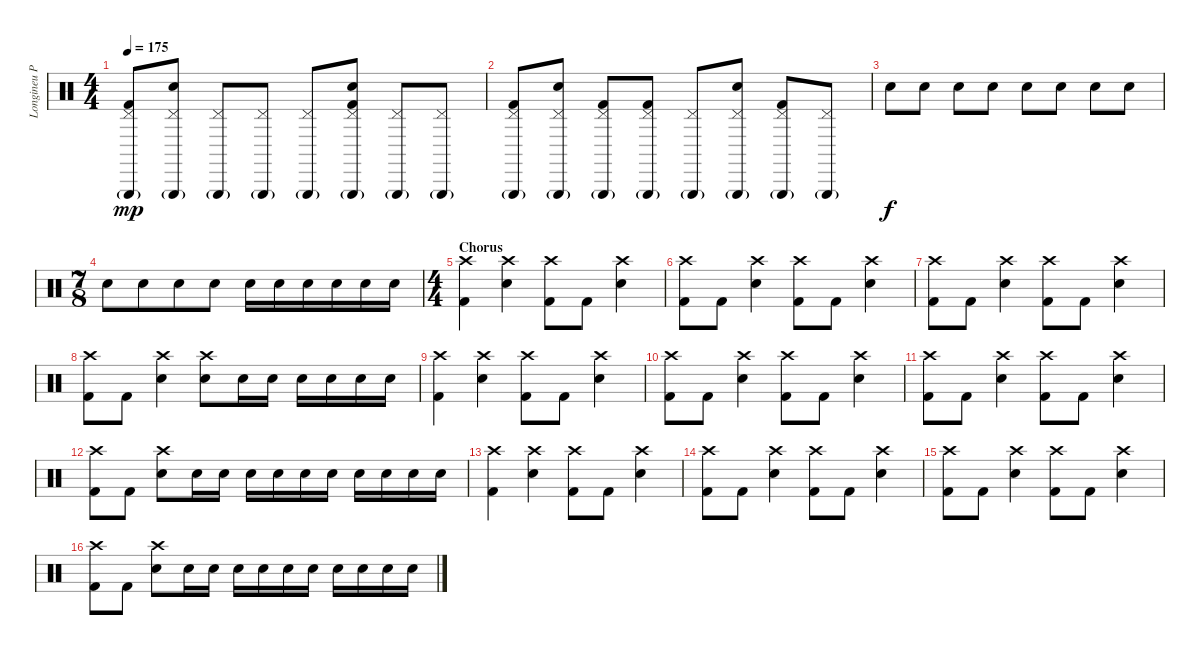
\track ("Longineu Parsons III Drums" "Longineu P") {instrument percussion}
\staff {score}
\articulation defaults
\ts (4 4)
\tempo 175
\clef neutral
\ks c
("Triangle (hit)"{g} "Pedal Hi-Hat (hit)" "Kick (hit) 2").8{dy mp} ("Triangle (hit)"{g} "Pedal Hi-Hat (hit)" "Electric Snare (hit)").8 ("Triangle (hit)"{g} "Pedal Hi-Hat (hit)").8 ("Triangle (hit)"{g} "Pedal Hi-Hat (hit)").8 ("Triangle (hit)"{g} "Pedal Hi-Hat (hit)").8 ("Triangle (hit)"{g} "Pedal Hi-Hat (hit)" "Electric Snare (hit)" "Kick (hit) 2").8 ("Triangle (hit)"{g} "Pedal Hi-Hat (hit)").8 ("Triangle (hit)"{g} "Pedal Hi-Hat (hit)").8 |
("Triangle (hit)"{g} "Pedal Hi-Hat (hit)" "Kick (hit) 2").8 ("Triangle (hit)"{g} "Pedal Hi-Hat (hit)" "Electric Snare (hit)").8 ("Triangle (hit)"{g} "Pedal Hi-Hat (hit)" "Kick (hit) 2").8 ("Triangle (hit)"{g} "Pedal Hi-Hat (hit)" "Kick (hit) 2").8 ("Triangle (hit)"{g} "Pedal Hi-Hat (hit)").8 ("Triangle (hit)"{g} "Pedal Hi-Hat (hit)" "Electric Snare (hit)").8 ("Triangle (hit)"{g} "Pedal Hi-Hat (hit)" "Kick (hit) 2").8 ("Triangle (hit)"{g} "Pedal Hi-Hat (hit)").8 |
"Snare (hit) 2".8{dy f} "Snare (hit) 2".8 "Snare (hit) 2".8 "Snare (hit) 2".8 "Snare (hit) 2".8 "Snare (hit) 2".8 "Snare (hit) 2".8 "Snare (hit) 2".8 |
\ts (7 8)
"Snare (hit) 2".8 "Snare (hit) 2".8 "Snare (hit) 2".8 "Snare (hit) 2".8 "Snare (hit) 2".16 "Snare (hit) 2".16 "Snare (hit) 2".16 "Snare (hit) 2".16 "Snare (hit) 2".16 "Snare (hit) 2".16 |
\ts (4 4)
\section ("" "Chorus")
("Kick (hit) 2" "Crash high (hit)").4 ("Snare (hit) 2" "Crash high (hit)").4 ("Kick (hit) 2" "Crash high (hit)").8 "Kick (hit) 2".8 ("Snare (hit) 2" "Crash high (hit)").4 |
("Kick (hit) 2" "Crash high (hit)").8 "Kick (hit) 2".8 ("Snare (hit) 2" "Crash high (hit)").4 ("Kick (hit) 2" "Crash high (hit)").8 "Kick (hit) 2".8 ("Snare (hit) 2" "Crash high (hit)").4 |
("Kick (hit) 2" "Crash high (hit)").8 "Kick (hit) 2".8 ("Snare (hit) 2" "Crash high (hit)").4 ("Kick (hit) 2" "Crash high (hit)").8 "Kick (hit) 2".8 ("Snare (hit) 2" "Crash high (hit)").4 |
("Kick (hit) 2" "Crash high (hit)").8 "Kick (hit) 2".8 ("Snare (hit) 2" "Crash high (hit)").4 ("Crash high (hit)" "Snare (hit) 2").8 "Snare (hit) 2".16 "Snare (hit) 2".16 "Snare (hit) 2".16 "Snare (hit) 2".16 "Snare (hit) 2".16 "Snare (hit) 2".16 |
("Kick (hit) 2" "Crash high (hit)").4 ("Snare (hit) 2" "Crash high (hit)").4 ("Kick (hit) 2" "Crash high (hit)").8 "Kick (hit) 2".8 ("Snare (hit) 2" "Crash high (hit)").4 |
("Kick (hit) 2" "Crash high (hit)").8 "Kick (hit) 2".8 ("Snare (hit) 2" "Crash high (hit)").4 ("Kick (hit) 2" "Crash high (hit)").8 "Kick (hit) 2".8 ("Snare (hit) 2" "Crash high (hit)").4 |
("Kick (hit) 2" "Crash high (hit)").8 "Kick (hit) 2".8 ("Snare (hit) 2" "Crash high (hit)").4 ("Kick (hit) 2" "Crash high (hit)").8 "Kick (hit) 2".8 ("Snare (hit) 2" "Crash high (hit)").4 |
("Kick (hit) 2" "Crash high (hit)").8 "Kick (hit) 2".8 ("Snare (hit) 2" "Crash high (hit)").8 "Snare (hit) 2".16 "Snare (hit) 2".16 "Snare (hit) 2".16 "Snare (hit) 2".16 "Snare (hit) 2".16 "Snare (hit) 2".16 "Snare (hit) 2".16 "Snare (hit) 2".16 "Snare (hit) 2".16 "Snare (hit) 2".16 |
("Kick (hit) 2" "Crash high (hit)").4 ("Snare (hit) 2" "Crash high (hit)").4 ("Kick (hit) 2" "Crash high (hit)").8 "Kick (hit) 2".8 ("Snare (hit) 2" "Crash high (hit)").4 |
("Kick (hit) 2" "Crash high (hit)").8 "Kick (hit) 2".8 ("Snare (hit) 2" "Crash high (hit)").4 ("Kick (hit) 2" "Crash high (hit)").8 "Kick (hit) 2".8 ("Snare (hit) 2" "Crash high (hit)").4 |
("Kick (hit) 2" "Crash high (hit)").8 "Kick (hit) 2".8 ("Snare (hit) 2" "Crash high (hit)").4 ("Kick (hit) 2" "Crash high (hit)").8 "Kick (hit) 2".8 ("Snare (hit) 2" "Crash high (hit)").4 |
("Kick (hit) 2" "Crash high (hit)").8 "Kick (hit) 2".8 ("Snare (hit) 2" "Crash high (hit)").8 "Snare (hit) 2".16 "Snare (hit) 2".16 "Snare (hit) 2".16 "Snare (hit) 2".16 "Snare (hit) 2".16 "Snare (hit) 2".16 "Snare (hit) 2".16 "Snare (hit) 2".16 "Snare (hit) 2".16 "Snare (hit) 2".16
